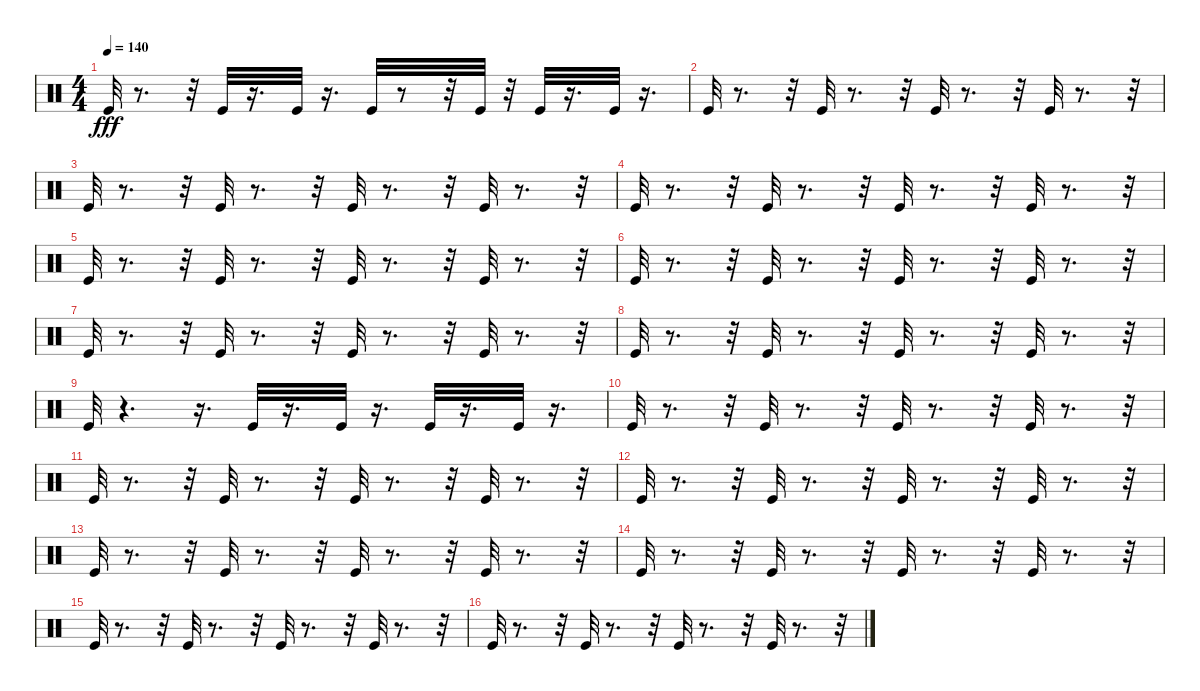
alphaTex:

\track "" {instrument percussion}
\staff {score}
\articulation defaults
\ts (4 4)
\tempo 140
\clef neutral
\ks c "Kick (hit)".32{dy fff}
r.8{d} r.32 "Kick (hit)".32 r.16{d} "Kick (hit)".32 r.16{d} "Kick (hit)".32 r.8 r.32 "Kick (hit)".32 r.32 "Kick (hit)".32 r.16{d} "Kick (hit)".32 r.16{d} |
"Kick (hit)".32 r.8{d} r.32 "Kick (hit)".32 r.8{d} r.32 "Kick (hit)".32 r.8{d} r.32 "Kick (hit)".32 r.8{d} r.32 |
"Kick (hit)".32 r.8{d} r.32 "Kick (hit)".32 r.8{d} r.32 "Kick (hit)".32 r.8{d} r.32 "Kick (hit)".32 r.8{d} r.32 |
"Kick (hit)".32 r.8{d} r.32 "Kick (hit)".32 r.8{d} r.32 "Kick (hit)".32 r.8{d} r.32 "Kick (hit)".32 r.8{d} r.32 |
"Kick (hit)".32 r.8{d} r.32 "Kick (hit)".32 r.8{d} r.32 "Kick (hit)".32 r.8{d} r.32 "Kick (hit)".32 r.8{d} r.32 |
"Kick (hit)".32 r.8{d} r.32 "Kick (hit)".32 r.8{d} r.32 "Kick (hit)".32 r.8{d} r.32 "Kick (hit)".32 r.8{d} r.32 |
"Kick (hit)".32 r.8{d} r.32 "Kick (hit)".32 r.8{d} r.32 "Kick (hit)".32 r.8{d} r.32 "Kick (hit)".32 r.8{d} r.32 |
"Kick (hit)".32 r.8{d} r.32 "Kick (hit)".32 r.8{d} r.32 "Kick (hit)".32 r.8{d} r.32 "Kick (hit)".32 r.8{d} r.32 |
"Kick (hit)".32 r.4{d} r.16{d} "Kick (hit)".32 r.16{d} "Kick (hit)".32 r.16{d} "Kick (hit)".32 r.16{d} "Kick (hit)".32 r.16{d} |
"Kick (hit)".32 r.8{d} r.32 "Kick (hit)".32 r.8{d} r.32 "Kick (hit)".32 r.8{d} r.32 "Kick (hit)".32 r.8{d} r.32 |
"Kick (hit)".32 r.8{d} r.32 "Kick (hit)".32 r.8{d} r.32 "Kick (hit)".32 r.8{d} r.32 "Kick (hit)".32 r.8{d} r.32 |
"Kick (hit)".32 r.8{d} r.32 "Kick (hit)".32 r.8{d} r.32 "Kick (hit)".32 r.8{d} r.32 "Kick (hit)".32 r.8{d} r.32 |
"Kick (hit)".32 r.8{d} r.32 "Kick (hit)".32 r.8{d} r.32 "Kick (hit)".32 r.8{d} r.32 "Kick (hit)".32 r.8{d} r.32 |
"Kick (hit)".32 r.8{d} r.32 "Kick (hit)".32 r.8{d} r.32 "Kick (hit)".32 r.8{d} r.32 "Kick (hit)".32 r.8{d} r.32 |
"Kick (hit)".32 r.8{d} r.32 "Kick (hit)".32 r.8{d} r.32 "Kick (hit)".32 r.8{d} r.32 "Kick (hit)".32 r.8{d} r.32 |
"Kick (hit)".32 r.8{d} r.32 "Kick (hit)".32 r.8{d} r.32 "Kick (hit)".32 r.8{d} r.32 "Kick (hit)".32 r.8{d} r.32
